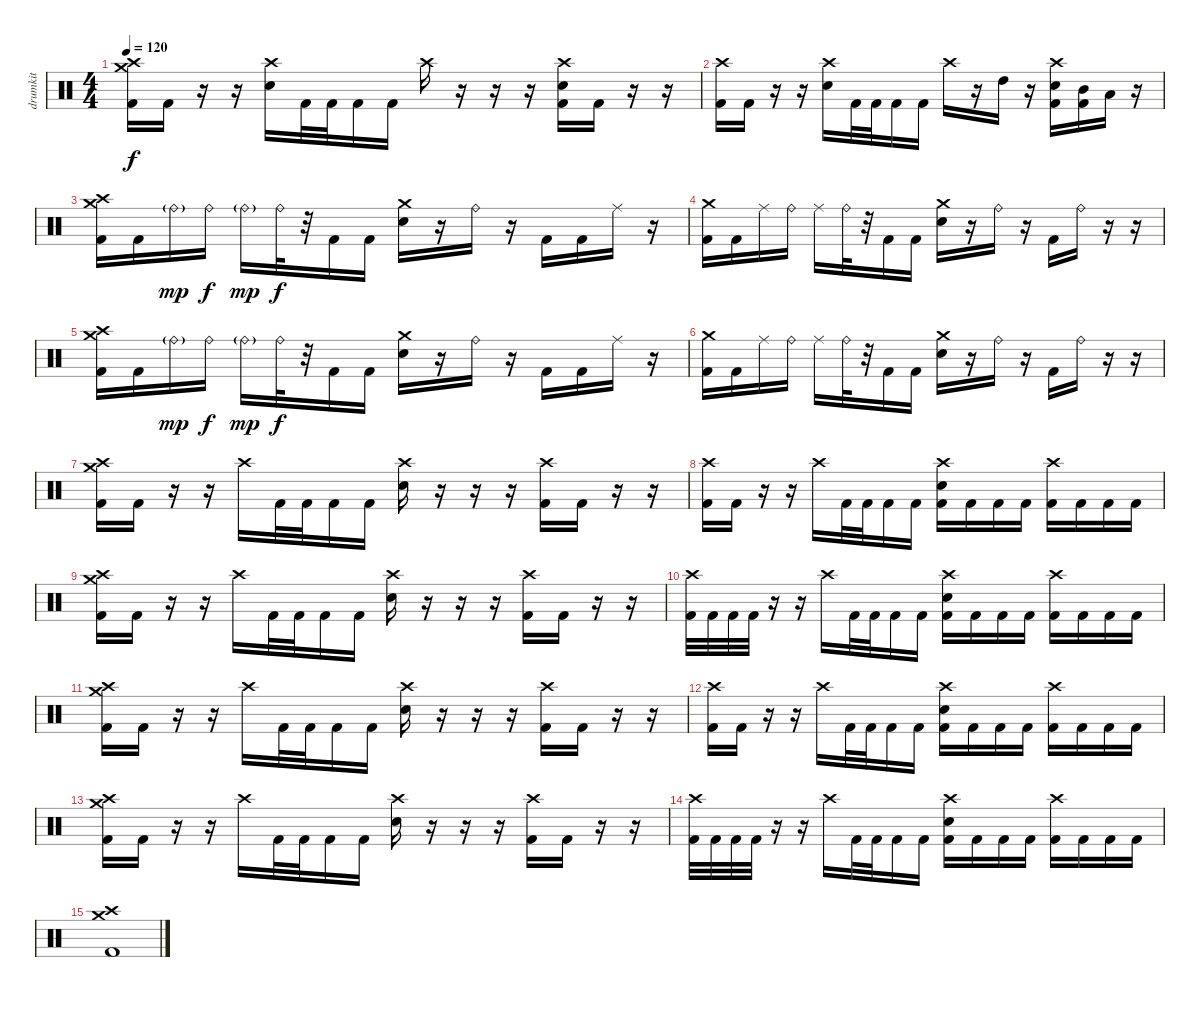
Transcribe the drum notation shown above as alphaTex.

\track ("drumkit" "drumkit") {instrument percussion}
\staff {score}
\articulation defaults
\ts (4 4)
\tempo 120
\clef neutral
\ks c
("Crash high (hit)" "Crash medium (hit)" "Kick (hit) 2").16{dy f} "Kick (hit) 2".16 r.16 r.16 ("Crash high (hit)" "Electric Snare (hit)").16 "Kick (hit) 2".32 "Kick (hit) 2".32 "Kick (hit) 2".16 "Kick (hit) 2".16 "Crash high (hit)".16 r.16 r.16 r.16 ("Crash high (hit)" "Electric Snare (hit)" "Kick (hit) 2").16 "Kick (hit) 2".16 r.16 r.16 |
("Crash high (hit)" "Kick (hit) 2").16 "Kick (hit) 2".16 r.16 r.16 ("Crash high (hit)" "Electric Snare (hit)").16 "Kick (hit) 2".32 "Kick (hit) 2".32 "Kick (hit) 2".16 "Kick (hit) 2".16 "Crash high (hit)".16 r.16 "High Tom (hit)".16 r.16 ("Crash high (hit)" "Electric Snare (hit)" "Kick (hit) 2").16 ("Mid Tom (hit)" "Kick (hit) 2").16 "Low Tom (hit)".16 r.16 |
("Crash high (hit)" "Crash medium (hit)" "Kick (hit) 2").16 "Kick (hit) 2".16 "Ride (bell)"{g}.16{dy mp} "Ride (bell)".16{dy f} "Ride (bell)"{g}.16{dy mp} "Ride (bell)".32{dy f} r.32 "Kick (hit) 2".16 "Kick (hit) 2".16 ("Crash medium (hit)" "Electric Snare (hit)").16 r.16 "Ride (bell)".16 r.16 "Kick (hit) 2".16 "Kick (hit) 2".16 "Ride (middle)".16 r.16 |
("Crash medium (hit)" "Kick (hit) 2").16 "Kick (hit) 2".16 "Ride (middle)".16 "Ride (bell)".16 "Ride (middle)".16 "Ride (bell)".32 r.32 "Kick (hit) 2".16 "Kick (hit) 2".16 ("Crash medium (hit)" "Electric Snare (hit)").16 r.16 "Ride (bell)".16 r.16 "Kick (hit) 2".16 "Ride (bell)".16 r.16 r.16 |
("Crash high (hit)" "Crash medium (hit)" "Kick (hit) 2").16 "Kick (hit) 2".16 "Ride (bell)"{g}.16{dy mp} "Ride (bell)".16{dy f} "Ride (bell)"{g}.16{dy mp} "Ride (bell)".32{dy f} r.32 "Kick (hit) 2".16 "Kick (hit) 2".16 ("Crash medium (hit)" "Electric Snare (hit)").16 r.16 "Ride (bell)".16 r.16 "Kick (hit) 2".16 "Kick (hit) 2".16 "Ride (middle)".16 r.16 |
("Crash medium (hit)" "Kick (hit) 2").16 "Kick (hit) 2".16 "Ride (middle)".16 "Ride (bell)".16 "Ride (middle)".16 "Ride (bell)".32 r.32 "Kick (hit) 2".16 "Kick (hit) 2".16 ("Crash medium (hit)" "Electric Snare (hit)").16 r.16 "Ride (bell)".16 r.16 "Kick (hit) 2".16 "Ride (bell)".16 r.16 r.16 |
("Crash high (hit)" "Crash medium (hit)" "Kick (hit) 2").16 "Kick (hit) 2".16 r.16 r.16 "Crash high (hit)".16 "Kick (hit) 2".32 "Kick (hit) 2".32 "Kick (hit) 2".16 "Kick (hit) 2".16 ("Crash high (hit)" "Electric Snare (hit)").16 r.16 r.16 r.16 ("Crash high (hit)" "Kick (hit) 2").16 "Kick (hit) 2".16 r.16 r.16 |
("Crash high (hit)" "Kick (hit) 2").16 "Kick (hit) 2".16 r.16 r.16 "Crash high (hit)".16 "Kick (hit) 2".32 "Kick (hit) 2".32 "Kick (hit) 2".16 "Kick (hit) 2".16 ("Crash high (hit)" "Electric Snare (hit)" "Kick (hit) 2").16 "Kick (hit) 2".16 "Kick (hit) 2".16 "Kick (hit) 2".16 ("Crash high (hit)" "Kick (hit) 2").16 "Kick (hit) 2".16 "Kick (hit) 2".16 "Kick (hit) 2".16 |
("Crash high (hit)" "Crash medium (hit)" "Kick (hit) 2").16 "Kick (hit) 2".16 r.16 r.16 "Crash high (hit)".16 "Kick (hit) 2".32 "Kick (hit) 2".32 "Kick (hit) 2".16 "Kick (hit) 2".16 ("Crash high (hit)" "Electric Snare (hit)").16 r.16 r.16 r.16 ("Crash high (hit)" "Kick (hit) 2").16 "Kick (hit) 2".16 r.16 r.16 |
("Crash high (hit)" "Kick (hit) 2").32 "Kick (hit) 2".32 "Kick (hit) 2".32 "Kick (hit) 2".32 r.16 r.16 "Crash high (hit)".16 "Kick (hit) 2".32 "Kick (hit) 2".32 "Kick (hit) 2".16 "Kick (hit) 2".16 ("Crash high (hit)" "Electric Snare (hit)" "Kick (hit) 2").16 "Kick (hit) 2".16 "Kick (hit) 2".16 "Kick (hit) 2".16 ("Crash high (hit)" "Kick (hit) 2").16 "Kick (hit) 2".16 "Kick (hit) 2".16 "Kick (hit) 2".16 |
("Crash high (hit)" "Crash medium (hit)" "Kick (hit) 2").16 "Kick (hit) 2".16 r.16 r.16 "Crash high (hit)".16 "Kick (hit) 2".32 "Kick (hit) 2".32 "Kick (hit) 2".16 "Kick (hit) 2".16 ("Crash high (hit)" "Electric Snare (hit)").16 r.16 r.16 r.16 ("Crash high (hit)" "Kick (hit) 2").16 "Kick (hit) 2".16 r.16 r.16 |
("Crash high (hit)" "Kick (hit) 2").16 "Kick (hit) 2".16 r.16 r.16 "Crash high (hit)".16 "Kick (hit) 2".32 "Kick (hit) 2".32 "Kick (hit) 2".16 "Kick (hit) 2".16 ("Crash high (hit)" "Electric Snare (hit)" "Kick (hit) 2").16 "Kick (hit) 2".16 "Kick (hit) 2".16 "Kick (hit) 2".16 ("Crash high (hit)" "Kick (hit) 2").16 "Kick (hit) 2".16 "Kick (hit) 2".16 "Kick (hit) 2".16 |
("Crash high (hit)" "Crash medium (hit)" "Kick (hit) 2").16 "Kick (hit) 2".16 r.16 r.16 "Crash high (hit)".16 "Kick (hit) 2".32 "Kick (hit) 2".32 "Kick (hit) 2".16 "Kick (hit) 2".16 ("Crash high (hit)" "Electric Snare (hit)").16 r.16 r.16 r.16 ("Crash high (hit)" "Kick (hit) 2").16 "Kick (hit) 2".16 r.16 r.16 |
("Crash high (hit)" "Kick (hit) 2").32 "Kick (hit) 2".32 "Kick (hit) 2".32 "Kick (hit) 2".32 r.16 r.16 "Crash high (hit)".16 "Kick (hit) 2".32 "Kick (hit) 2".32 "Kick (hit) 2".16 "Kick (hit) 2".16 ("Crash high (hit)" "Electric Snare (hit)" "Kick (hit) 2").16 "Kick (hit) 2".16 "Kick (hit) 2".16 "Kick (hit) 2".16 ("Crash high (hit)" "Kick (hit) 2").16 "Kick (hit) 2".16 "Kick (hit) 2".16 "Kick (hit) 2".16 |
("Crash high (hit)" "Crash medium (hit)" "Kick (hit) 2").1
